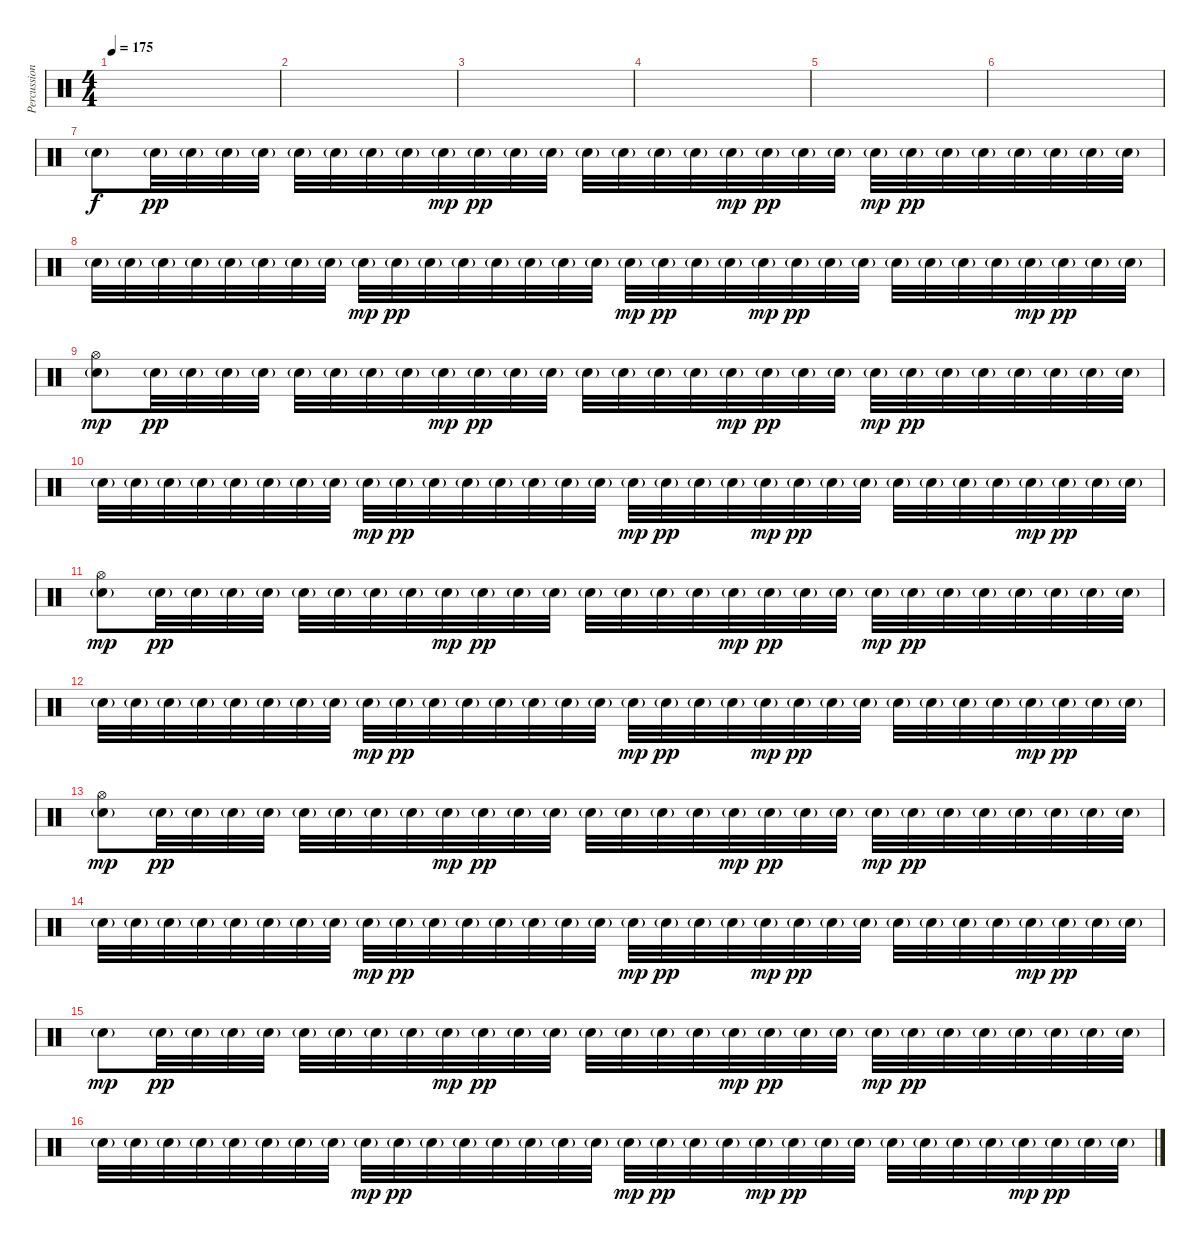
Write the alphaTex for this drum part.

\track ("Percussion" "Percussion") {instrument percussion}
\staff {score}
\articulation defaults
\ts (4 4)
\tempo 175
\clef neutral
\ks c
|
|
|
|
|
|
"Electric Snare (hit)"{g}.8 "Electric Snare (hit)"{g}.32{dy pp} "Electric Snare (hit)"{g}.32 "Electric Snare (hit)"{g}.32 "Electric Snare (hit)"{g}.32 "Electric Snare (hit)"{g}.32 "Electric Snare (hit)"{g}.32 "Electric Snare (hit)"{g}.32 "Electric Snare (hit)"{g}.32 "Electric Snare (hit)"{g}.32{dy mp} "Electric Snare (hit)"{g}.32{dy pp} "Electric Snare (hit)"{g}.32 "Electric Snare (hit)"{g}.32 "Electric Snare (hit)"{g}.32 "Electric Snare (hit)"{g}.32 "Electric Snare (hit)"{g}.32 "Electric Snare (hit)"{g}.32 "Electric Snare (hit)"{g}.32{dy mp} "Electric Snare (hit)"{g}.32{dy pp} "Electric Snare (hit)"{g}.32 "Electric Snare (hit)"{g}.32 "Electric Snare (hit)"{g}.32{dy mp} "Electric Snare (hit)"{g}.32{dy pp} "Electric Snare (hit)"{g}.32 "Electric Snare (hit)"{g}.32 "Electric Snare (hit)"{g}.32 "Electric Snare (hit)"{g}.32 "Electric Snare (hit)"{g}.32 "Electric Snare (hit)"{g}.32 |
"Electric Snare (hit)"{g}.32 "Electric Snare (hit)"{g}.32 "Electric Snare (hit)"{g}.32 "Electric Snare (hit)"{g}.32 "Electric Snare (hit)"{g}.32 "Electric Snare (hit)"{g}.32 "Electric Snare (hit)"{g}.32 "Electric Snare (hit)"{g}.32 "Electric Snare (hit)"{g}.32{dy mp} "Electric Snare (hit)"{g}.32{dy pp} "Electric Snare (hit)"{g}.32 "Electric Snare (hit)"{g}.32 "Electric Snare (hit)"{g}.32 "Electric Snare (hit)"{g}.32 "Electric Snare (hit)"{g}.32 "Electric Snare (hit)"{g}.32 "Electric Snare (hit)"{g}.32{dy mp} "Electric Snare (hit)"{g}.32{dy pp} "Electric Snare (hit)"{g}.32 "Electric Snare (hit)"{g}.32 "Electric Snare (hit)"{g}.32{dy mp} "Electric Snare (hit)"{g}.32{dy pp} "Electric Snare (hit)"{g}.32 "Electric Snare (hit)"{g}.32 "Electric Snare (hit)"{g}.32 "Electric Snare (hit)"{g}.32 "Electric Snare (hit)"{g}.32 "Electric Snare (hit)"{g}.32 "Electric Snare (hit)"{g}.32{dy mp} "Electric Snare (hit)"{g}.32{dy pp} "Electric Snare (hit)"{g}.32 "Electric Snare (hit)"{g}.32 |
("Hi-Hat (open)" "Electric Snare (hit)"{g}).8{dy mp} "Electric Snare (hit)"{g}.32{dy pp} "Electric Snare (hit)"{g}.32 "Electric Snare (hit)"{g}.32 "Electric Snare (hit)"{g}.32 "Electric Snare (hit)"{g}.32 "Electric Snare (hit)"{g}.32 "Electric Snare (hit)"{g}.32 "Electric Snare (hit)"{g}.32 "Electric Snare (hit)"{g}.32{dy mp} "Electric Snare (hit)"{g}.32{dy pp} "Electric Snare (hit)"{g}.32 "Electric Snare (hit)"{g}.32 "Electric Snare (hit)"{g}.32 "Electric Snare (hit)"{g}.32 "Electric Snare (hit)"{g}.32 "Electric Snare (hit)"{g}.32 "Electric Snare (hit)"{g}.32{dy mp} "Electric Snare (hit)"{g}.32{dy pp} "Electric Snare (hit)"{g}.32 "Electric Snare (hit)"{g}.32 "Electric Snare (hit)"{g}.32{dy mp} "Electric Snare (hit)"{g}.32{dy pp} "Electric Snare (hit)"{g}.32 "Electric Snare (hit)"{g}.32 "Electric Snare (hit)"{g}.32 "Electric Snare (hit)"{g}.32 "Electric Snare (hit)"{g}.32 "Electric Snare (hit)"{g}.32 |
"Electric Snare (hit)"{g}.32 "Electric Snare (hit)"{g}.32 "Electric Snare (hit)"{g}.32 "Electric Snare (hit)"{g}.32 "Electric Snare (hit)"{g}.32 "Electric Snare (hit)"{g}.32 "Electric Snare (hit)"{g}.32 "Electric Snare (hit)"{g}.32 "Electric Snare (hit)"{g}.32{dy mp} "Electric Snare (hit)"{g}.32{dy pp} "Electric Snare (hit)"{g}.32 "Electric Snare (hit)"{g}.32 "Electric Snare (hit)"{g}.32 "Electric Snare (hit)"{g}.32 "Electric Snare (hit)"{g}.32 "Electric Snare (hit)"{g}.32 "Electric Snare (hit)"{g}.32{dy mp} "Electric Snare (hit)"{g}.32{dy pp} "Electric Snare (hit)"{g}.32 "Electric Snare (hit)"{g}.32 "Electric Snare (hit)"{g}.32{dy mp} "Electric Snare (hit)"{g}.32{dy pp} "Electric Snare (hit)"{g}.32 "Electric Snare (hit)"{g}.32 "Electric Snare (hit)"{g}.32 "Electric Snare (hit)"{g}.32 "Electric Snare (hit)"{g}.32 "Electric Snare (hit)"{g}.32 "Electric Snare (hit)"{g}.32{dy mp} "Electric Snare (hit)"{g}.32{dy pp} "Electric Snare (hit)"{g}.32 "Electric Snare (hit)"{g}.32 |
("Hi-Hat (open)" "Electric Snare (hit)"{g}).8{dy mp} "Electric Snare (hit)"{g}.32{dy pp} "Electric Snare (hit)"{g}.32 "Electric Snare (hit)"{g}.32 "Electric Snare (hit)"{g}.32 "Electric Snare (hit)"{g}.32 "Electric Snare (hit)"{g}.32 "Electric Snare (hit)"{g}.32 "Electric Snare (hit)"{g}.32 "Electric Snare (hit)"{g}.32{dy mp} "Electric Snare (hit)"{g}.32{dy pp} "Electric Snare (hit)"{g}.32 "Electric Snare (hit)"{g}.32 "Electric Snare (hit)"{g}.32 "Electric Snare (hit)"{g}.32 "Electric Snare (hit)"{g}.32 "Electric Snare (hit)"{g}.32 "Electric Snare (hit)"{g}.32{dy mp} "Electric Snare (hit)"{g}.32{dy pp} "Electric Snare (hit)"{g}.32 "Electric Snare (hit)"{g}.32 "Electric Snare (hit)"{g}.32{dy mp} "Electric Snare (hit)"{g}.32{dy pp} "Electric Snare (hit)"{g}.32 "Electric Snare (hit)"{g}.32 "Electric Snare (hit)"{g}.32 "Electric Snare (hit)"{g}.32 "Electric Snare (hit)"{g}.32 "Electric Snare (hit)"{g}.32 |
"Electric Snare (hit)"{g}.32 "Electric Snare (hit)"{g}.32 "Electric Snare (hit)"{g}.32 "Electric Snare (hit)"{g}.32 "Electric Snare (hit)"{g}.32 "Electric Snare (hit)"{g}.32 "Electric Snare (hit)"{g}.32 "Electric Snare (hit)"{g}.32 "Electric Snare (hit)"{g}.32{dy mp} "Electric Snare (hit)"{g}.32{dy pp} "Electric Snare (hit)"{g}.32 "Electric Snare (hit)"{g}.32 "Electric Snare (hit)"{g}.32 "Electric Snare (hit)"{g}.32 "Electric Snare (hit)"{g}.32 "Electric Snare (hit)"{g}.32 "Electric Snare (hit)"{g}.32{dy mp} "Electric Snare (hit)"{g}.32{dy pp} "Electric Snare (hit)"{g}.32 "Electric Snare (hit)"{g}.32 "Electric Snare (hit)"{g}.32{dy mp} "Electric Snare (hit)"{g}.32{dy pp} "Electric Snare (hit)"{g}.32 "Electric Snare (hit)"{g}.32 "Electric Snare (hit)"{g}.32 "Electric Snare (hit)"{g}.32 "Electric Snare (hit)"{g}.32 "Electric Snare (hit)"{g}.32 "Electric Snare (hit)"{g}.32{dy mp} "Electric Snare (hit)"{g}.32{dy pp} "Electric Snare (hit)"{g}.32 "Electric Snare (hit)"{g}.32 |
("Hi-Hat (open)" "Electric Snare (hit)"{g}).8{dy mp} "Electric Snare (hit)"{g}.32{dy pp} "Electric Snare (hit)"{g}.32 "Electric Snare (hit)"{g}.32 "Electric Snare (hit)"{g}.32 "Electric Snare (hit)"{g}.32 "Electric Snare (hit)"{g}.32 "Electric Snare (hit)"{g}.32 "Electric Snare (hit)"{g}.32 "Electric Snare (hit)"{g}.32{dy mp} "Electric Snare (hit)"{g}.32{dy pp} "Electric Snare (hit)"{g}.32 "Electric Snare (hit)"{g}.32 "Electric Snare (hit)"{g}.32 "Electric Snare (hit)"{g}.32 "Electric Snare (hit)"{g}.32 "Electric Snare (hit)"{g}.32 "Electric Snare (hit)"{g}.32{dy mp} "Electric Snare (hit)"{g}.32{dy pp} "Electric Snare (hit)"{g}.32 "Electric Snare (hit)"{g}.32 "Electric Snare (hit)"{g}.32{dy mp} "Electric Snare (hit)"{g}.32{dy pp} "Electric Snare (hit)"{g}.32 "Electric Snare (hit)"{g}.32 "Electric Snare (hit)"{g}.32 "Electric Snare (hit)"{g}.32 "Electric Snare (hit)"{g}.32 "Electric Snare (hit)"{g}.32 |
"Electric Snare (hit)"{g}.32 "Electric Snare (hit)"{g}.32 "Electric Snare (hit)"{g}.32 "Electric Snare (hit)"{g}.32 "Electric Snare (hit)"{g}.32 "Electric Snare (hit)"{g}.32 "Electric Snare (hit)"{g}.32 "Electric Snare (hit)"{g}.32 "Electric Snare (hit)"{g}.32{dy mp} "Electric Snare (hit)"{g}.32{dy pp} "Electric Snare (hit)"{g}.32 "Electric Snare (hit)"{g}.32 "Electric Snare (hit)"{g}.32 "Electric Snare (hit)"{g}.32 "Electric Snare (hit)"{g}.32 "Electric Snare (hit)"{g}.32 "Electric Snare (hit)"{g}.32{dy mp} "Electric Snare (hit)"{g}.32{dy pp} "Electric Snare (hit)"{g}.32 "Electric Snare (hit)"{g}.32 "Electric Snare (hit)"{g}.32{dy mp} "Electric Snare (hit)"{g}.32{dy pp} "Electric Snare (hit)"{g}.32 "Electric Snare (hit)"{g}.32 "Electric Snare (hit)"{g}.32 "Electric Snare (hit)"{g}.32 "Electric Snare (hit)"{g}.32 "Electric Snare (hit)"{g}.32 "Electric Snare (hit)"{g}.32{dy mp} "Electric Snare (hit)"{g}.32{dy pp} "Electric Snare (hit)"{g}.32 "Electric Snare (hit)"{g}.32 |
"Electric Snare (hit)"{g}.8{dy mp} "Electric Snare (hit)"{g}.32{dy pp} "Electric Snare (hit)"{g}.32 "Electric Snare (hit)"{g}.32 "Electric Snare (hit)"{g}.32 "Electric Snare (hit)"{g}.32 "Electric Snare (hit)"{g}.32 "Electric Snare (hit)"{g}.32 "Electric Snare (hit)"{g}.32 "Electric Snare (hit)"{g}.32{dy mp} "Electric Snare (hit)"{g}.32{dy pp} "Electric Snare (hit)"{g}.32 "Electric Snare (hit)"{g}.32 "Electric Snare (hit)"{g}.32 "Electric Snare (hit)"{g}.32 "Electric Snare (hit)"{g}.32 "Electric Snare (hit)"{g}.32 "Electric Snare (hit)"{g}.32{dy mp} "Electric Snare (hit)"{g}.32{dy pp} "Electric Snare (hit)"{g}.32 "Electric Snare (hit)"{g}.32 "Electric Snare (hit)"{g}.32{dy mp} "Electric Snare (hit)"{g}.32{dy pp} "Electric Snare (hit)"{g}.32 "Electric Snare (hit)"{g}.32 "Electric Snare (hit)"{g}.32 "Electric Snare (hit)"{g}.32 "Electric Snare (hit)"{g}.32 "Electric Snare (hit)"{g}.32 |
"Electric Snare (hit)"{g}.32 "Electric Snare (hit)"{g}.32 "Electric Snare (hit)"{g}.32 "Electric Snare (hit)"{g}.32 "Electric Snare (hit)"{g}.32 "Electric Snare (hit)"{g}.32 "Electric Snare (hit)"{g}.32 "Electric Snare (hit)"{g}.32 "Electric Snare (hit)"{g}.32{dy mp} "Electric Snare (hit)"{g}.32{dy pp} "Electric Snare (hit)"{g}.32 "Electric Snare (hit)"{g}.32 "Electric Snare (hit)"{g}.32 "Electric Snare (hit)"{g}.32 "Electric Snare (hit)"{g}.32 "Electric Snare (hit)"{g}.32 "Electric Snare (hit)"{g}.32{dy mp} "Electric Snare (hit)"{g}.32{dy pp} "Electric Snare (hit)"{g}.32 "Electric Snare (hit)"{g}.32 "Electric Snare (hit)"{g}.32{dy mp} "Electric Snare (hit)"{g}.32{dy pp} "Electric Snare (hit)"{g}.32 "Electric Snare (hit)"{g}.32 "Electric Snare (hit)"{g}.32 "Electric Snare (hit)"{g}.32 "Electric Snare (hit)"{g}.32 "Electric Snare (hit)"{g}.32 "Electric Snare (hit)"{g}.32{dy mp} "Electric Snare (hit)"{g}.32{dy pp} "Electric Snare (hit)"{g}.32 "Electric Snare (hit)"{g}.32
